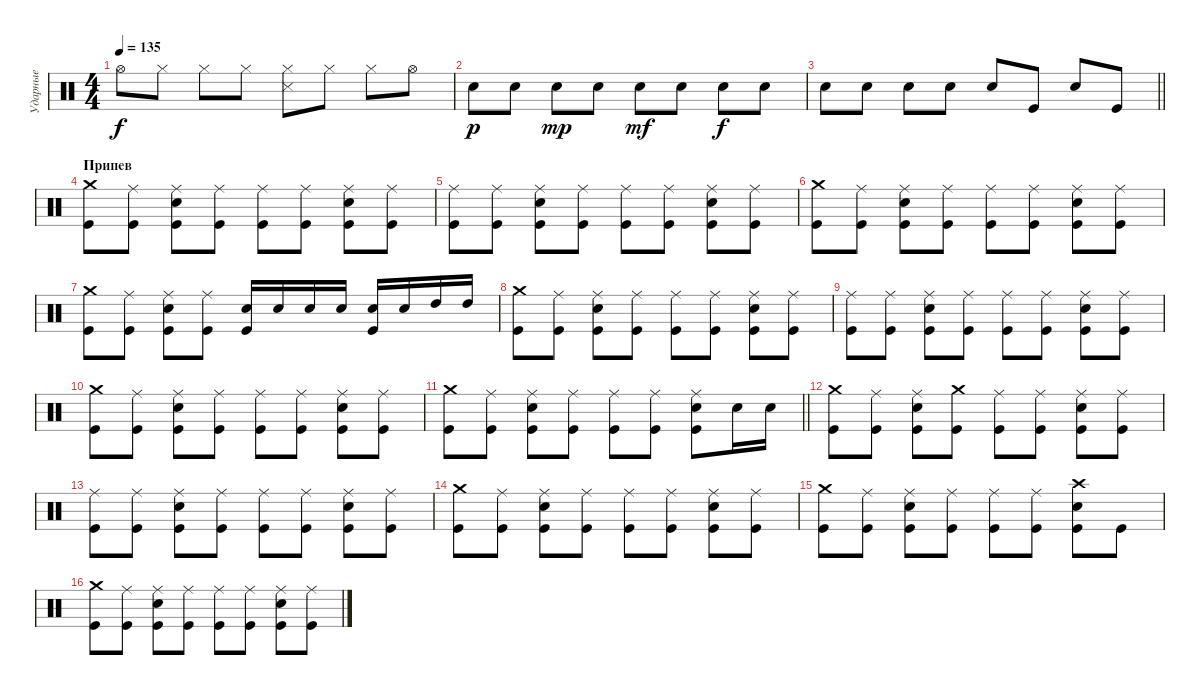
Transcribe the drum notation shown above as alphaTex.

\track ("Ударные" "Ударные") {instrument percussion}
\staff {score}
\articulation defaults
\ts (4 4)
\tempo 135
\clef neutral
\ks c "Hi-Hat (open)".8{dy f} "Hi-Hat (closed)".8 "Hi-Hat (closed)".8 "Hi-Hat (closed)".8
("Hi-Hat (closed)" "Snare (side stick) 3").8 "Hi-Hat (closed)".8 "Hi-Hat (closed)".8 "Hi-Hat (open)".8 |
"Electric Snare (hit)".8{dy p} "Electric Snare (hit)".8 "Electric Snare (hit)".8{dy mp} "Electric Snare (hit)".8 "Electric Snare (hit)".8{dy mf} "Electric Snare (hit)".8 "Electric Snare (hit)".8{dy f} "Electric Snare (hit)".8 |
\barLineRight lightlight "Electric Snare (hit)".8 "Electric Snare (hit)".8 "Electric Snare (hit)".8 "Electric Snare (hit)".8 "Electric Snare (hit)".8 "Kick (hit)".8 "Electric Snare (hit)".8 "Kick (hit)".8
|
\section ("" "Припев")
("Crash medium (hit)" "Kick (hit)").8 ("Ride (middle)" "Kick (hit)").8 ("Ride (middle)" "Electric Snare (hit)" "Kick (hit)").8 ("Ride (middle)" "Kick (hit)").8 ("Ride (middle)" "Kick (hit)").8 ("Ride (middle)" "Kick (hit)").8 ("Ride (middle)" "Electric Snare (hit)" "Kick (hit)").8 ("Ride (middle)" "Kick (hit)").8 |
("Ride (middle)" "Kick (hit)").8 ("Ride (middle)" "Kick (hit)").8 ("Ride (middle)" "Electric Snare (hit)" "Kick (hit)").8 ("Ride (middle)" "Kick (hit)").8 ("Ride (middle)" "Kick (hit)").8 ("Ride (middle)" "Kick (hit)").8 ("Ride (middle)" "Electric Snare (hit)" "Kick (hit)").8 ("Ride (middle)" "Kick (hit)").8 |
("Crash medium (hit)" "Kick (hit)").8 ("Ride (middle)" "Kick (hit)").8 ("Ride (middle)" "Electric Snare (hit)" "Kick (hit)").8 ("Ride (middle)" "Kick (hit)").8 ("Ride (middle)" "Kick (hit)").8 ("Ride (middle)" "Kick (hit)").8 ("Ride (middle)" "Electric Snare (hit)" "Kick (hit)").8 ("Ride (middle)" "Kick (hit)").8 |
("Crash medium (hit)" "Kick (hit)").8 ("Ride (middle)" "Kick (hit)").8 ("Ride (middle)" "Electric Snare (hit)" "Kick (hit)").8 ("Ride (middle)" "Kick (hit)").8 ("Electric Snare (hit)" "Kick (hit)").16 "Electric Snare (hit)".16 "Electric Snare (hit)".16 "Electric Snare (hit)".16 ("Electric Snare (hit)" "Kick (hit)").16 "Electric Snare (hit)".16 "High Tom (hit)".16 "High Tom (hit)".16 |
("Crash medium (hit)" "Kick (hit)").8 ("Ride (middle)" "Kick (hit)").8 ("Ride (middle)" "Electric Snare (hit)" "Kick (hit)").8 ("Ride (middle)" "Kick (hit)").8 ("Ride (middle)" "Kick (hit)").8 ("Ride (middle)" "Kick (hit)").8 ("Ride (middle)" "Electric Snare (hit)" "Kick (hit)").8 ("Ride (middle)" "Kick (hit)").8 |
("Ride (middle)" "Kick (hit)").8 ("Ride (middle)" "Kick (hit)").8 ("Ride (middle)" "Electric Snare (hit)" "Kick (hit)").8 ("Ride (middle)" "Kick (hit)").8 ("Ride (middle)" "Kick (hit)").8 ("Ride (middle)" "Kick (hit)").8 ("Ride (middle)" "Electric Snare (hit)" "Kick (hit)").8 ("Ride (middle)" "Kick (hit)").8 |
("Crash medium (hit)" "Kick (hit)").8 ("Ride (middle)" "Kick (hit)").8 ("Ride (middle)" "Electric Snare (hit)" "Kick (hit)").8 ("Ride (middle)" "Kick (hit)").8 ("Ride (middle)" "Kick (hit)").8 ("Ride (middle)" "Kick (hit)").8 ("Ride (middle)" "Electric Snare (hit)" "Kick (hit)").8 ("Ride (middle)" "Kick (hit)").8 |
\barLineRight lightlight
("Crash medium (hit)" "Kick (hit)").8 ("Ride (middle)" "Kick (hit)").8 ("Ride (middle)" "Electric Snare (hit)" "Kick (hit)").8 ("Ride (middle)" "Kick (hit)").8 ("Ride (middle)" "Kick (hit)").8 ("Ride (middle)" "Kick (hit)").8 ("Ride (middle)" "Electric Snare (hit)" "Kick (hit)").8 "Electric Snare (hit)".16 "Electric Snare (hit)".16 |
\section ("" " ")
("Crash medium (hit)" "Kick (hit)").8 ("Ride (middle)" "Kick (hit)").8 ("Ride (middle)" "Electric Snare (hit)" "Kick (hit)").8 ("Crash medium (hit)" "Kick (hit)").8 ("Ride (middle)" "Kick (hit)").8 ("Ride (middle)" "Kick (hit)").8 ("Ride (middle)" "Electric Snare (hit)" "Kick (hit)").8 ("Ride (middle)" "Kick (hit)").8 |
("Ride (middle)" "Kick (hit)").8 ("Ride (middle)" "Kick (hit)").8 ("Ride (middle)" "Electric Snare (hit)" "Kick (hit)").8 ("Ride (middle)" "Kick (hit)").8 ("Ride (middle)" "Kick (hit)").8 ("Ride (middle)" "Kick (hit)").8 ("Ride (middle)" "Electric Snare (hit)" "Kick (hit)").8 ("Ride (middle)" "Kick (hit)").8 |
("Crash medium (hit)" "Kick (hit)").8 ("Ride (middle)" "Kick (hit)").8 ("Ride (middle)" "Electric Snare (hit)" "Kick (hit)").8 ("Ride (middle)" "Kick (hit)").8 ("Ride (middle)" "Kick (hit)").8 ("Ride (middle)" "Kick (hit)").8 ("Ride (middle)" "Electric Snare (hit)" "Kick (hit)").8 ("Ride (middle)" "Kick (hit)").8 |
("Crash medium (hit)" "Kick (hit)").8 ("Ride (middle)" "Kick (hit)").8 ("Ride (middle)" "Electric Snare (hit)" "Kick (hit)").8 ("Ride (middle)" "Kick (hit)").8 ("Ride (middle)" "Kick (hit)").8 ("Ride (middle)" "Kick (hit)").8 ("Crash high (hit)" "Electric Snare (hit)" "Kick (hit)").8 "Kick (hit)".8 |
("Crash medium (hit)" "Kick (hit)").8 ("Ride (middle)" "Kick (hit)").8 ("Ride (middle)" "Electric Snare (hit)" "Kick (hit)").8 ("Ride (middle)" "Kick (hit)").8 ("Ride (middle)" "Kick (hit)").8 ("Ride (middle)" "Kick (hit)").8 ("Ride (middle)" "Electric Snare (hit)" "Kick (hit)").8 ("Ride (middle)" "Kick (hit)").8
